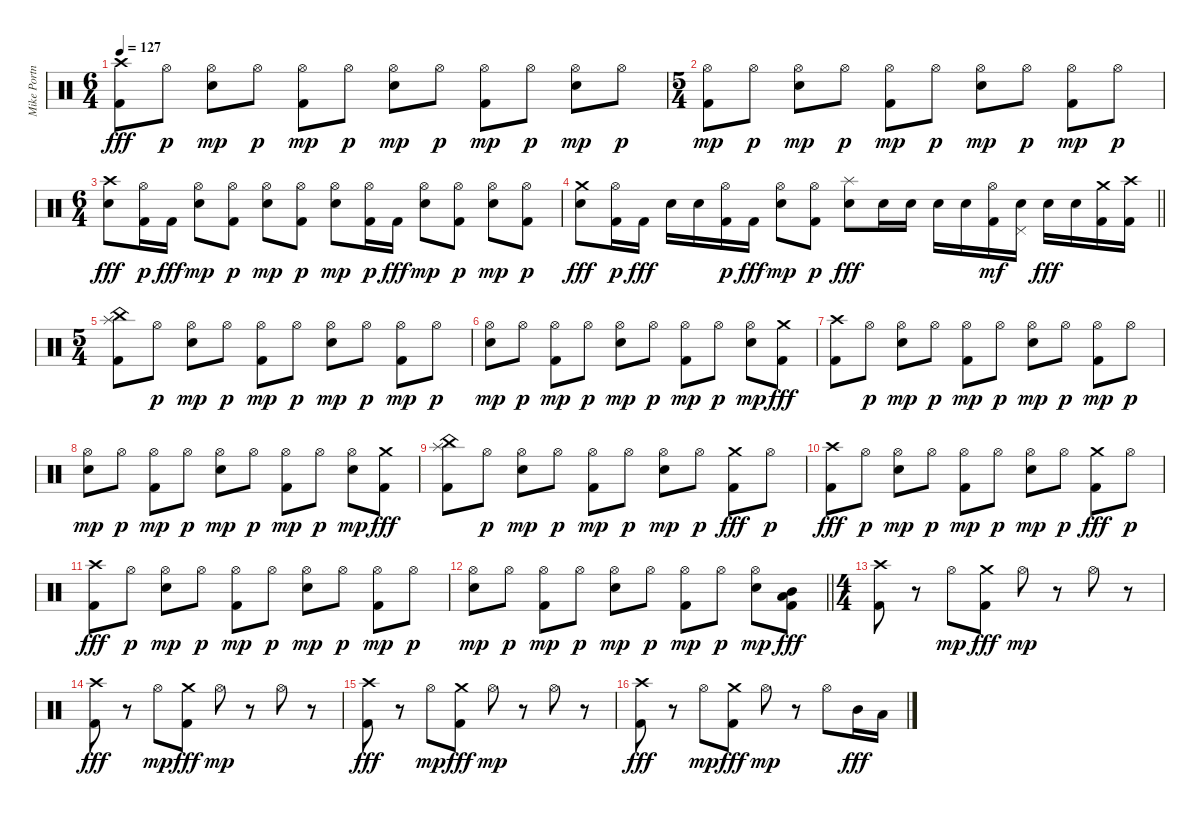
\track ("Mike Portnoy" "Mike Portn") {instrument percussion}
\staff {score}
\articulation defaults
\ts (6 4)
\tempo 127
\clef neutral
\ks c
("Kick (hit) 2" "Crash high (hit)").8{dy fff} "Hi-Hat (open)".8{dy p} ("Electric Snare (hit)" "Hi-Hat (open)").8{dy mp} "Hi-Hat (open)".8{dy p} ("Kick (hit) 2" "Hi-Hat (open)").8{dy mp} "Hi-Hat (open)".8{dy p} ("Electric Snare (hit)" "Hi-Hat (open)").8{dy mp} "Hi-Hat (open)".8{dy p} ("Kick (hit) 2" "Hi-Hat (open)").8{dy mp} "Hi-Hat (open)".8{dy p} ("Electric Snare (hit)" "Hi-Hat (open)").8{dy mp} "Hi-Hat (open)".8{dy p} |
\ts (5 4)
("Kick (hit) 2" "Hi-Hat (open)").8{dy mp} "Hi-Hat (open)".8{dy p} ("Electric Snare (hit)" "Hi-Hat (open)").8{dy mp} "Hi-Hat (open)".8{dy p} ("Kick (hit) 2" "Hi-Hat (open)").8{dy mp} "Hi-Hat (open)".8{dy p} ("Electric Snare (hit)" "Hi-Hat (open)").8{dy mp} "Hi-Hat (open)".8{dy p} ("Kick (hit) 2" "Hi-Hat (open)").8{dy mp} "Hi-Hat (open)".8{dy p} |
\ts (6 4)
("Electric Snare (hit)" "Crash high (hit)").8{dy fff} ("Kick (hit) 2" "Hi-Hat (open)").16{dy p} "Kick (hit) 2".16{dy fff} ("Electric Snare (hit)" "Hi-Hat (open)").8{dy mp} ("Kick (hit) 2" "Hi-Hat (open)").8{dy p} ("Electric Snare (hit)" "Hi-Hat (open)").8{dy mp} ("Kick (hit) 2" "Hi-Hat (open)").8{dy p} ("Electric Snare (hit)" "Hi-Hat (open)").8{dy mp} ("Kick (hit) 2" "Hi-Hat (open)").16{dy p} "Kick (hit) 2".16{dy fff} ("Electric Snare (hit)" "Hi-Hat (open)").8{dy mp} ("Kick (hit) 2" "Hi-Hat (open)").8{dy p} ("Electric Snare (hit)" "Hi-Hat (open)").8{dy mp} ("Kick (hit) 2" "Hi-Hat (open)").8{dy p} |
\barLineRight lightlight
("Electric Snare (hit)" "Crash medium (hit)").8{dy fff} ("Kick (hit) 2" "Hi-Hat (open)").16{dy p} "Kick (hit) 2".16{dy fff} "Electric Snare (hit)".16 "Electric Snare (hit)".16 ("Kick (hit) 2" "Hi-Hat (open)").16{dy p} "Kick (hit) 2".16{dy fff} ("Electric Snare (hit)" "Hi-Hat (open)").8{dy mp} ("Kick (hit) 2" "Hi-Hat (open)").8{dy p} ("Electric Snare (hit)" "Splash (hit)").8{dy fff} "Electric Snare (hit)".16 "Electric Snare (hit)".16 "Electric Snare (hit)".16 "Electric Snare (hit)".16 ("Kick (hit) 2" "Hi-Hat (open)").16{dy mf} ("Electric Snare (hit)" "Pedal Hi-Hat (hit)").16 "Electric Snare (hit)".16{dy fff} "Electric Snare (hit)".16 ("Kick (hit) 2" "Crash medium (hit)").16 ("Kick (hit) 2" "Crash high (hit)").16 |
\ts (5 4)
("Kick (hit) 2" "China (hit)" "Splash (hit)").8 "Hi-Hat (open)".8{dy p} ("Electric Snare (hit)" "Hi-Hat (open)").8{dy mp} "Hi-Hat (open)".8{dy p} ("Kick (hit) 2" "Hi-Hat (open)").8{dy mp} "Hi-Hat (open)".8{dy p} ("Electric Snare (hit)" "Hi-Hat (open)").8{dy mp} "Hi-Hat (open)".8{dy p} ("Kick (hit) 2" "Hi-Hat (open)").8{dy mp} "Hi-Hat (open)".8{dy p} |
("Electric Snare (hit)" "Hi-Hat (open)").8{dy mp} "Hi-Hat (open)".8{dy p} ("Kick (hit) 2" "Hi-Hat (open)").8{dy mp} "Hi-Hat (open)".8{dy p} ("Electric Snare (hit)" "Hi-Hat (open)").8{dy mp} "Hi-Hat (open)".8{dy p} ("Kick (hit) 2" "Hi-Hat (open)").8{dy mp} "Hi-Hat (open)".8{dy p} ("Electric Snare (hit)" "Hi-Hat (open)").8{dy mp} ("Kick (hit) 2" "Crash medium (hit)").8{dy fff} |
("Kick (hit) 2" "Crash high (hit)").8 "Hi-Hat (open)".8{dy p} ("Electric Snare (hit)" "Hi-Hat (open)").8{dy mp} "Hi-Hat (open)".8{dy p} ("Kick (hit) 2" "Hi-Hat (open)").8{dy mp} "Hi-Hat (open)".8{dy p} ("Electric Snare (hit)" "Hi-Hat (open)").8{dy mp} "Hi-Hat (open)".8{dy p} ("Kick (hit) 2" "Hi-Hat (open)").8{dy mp} "Hi-Hat (open)".8{dy p} |
("Electric Snare (hit)" "Hi-Hat (open)").8{dy mp} "Hi-Hat (open)".8{dy p} ("Kick (hit) 2" "Hi-Hat (open)").8{dy mp} "Hi-Hat (open)".8{dy p} ("Electric Snare (hit)" "Hi-Hat (open)").8{dy mp} "Hi-Hat (open)".8{dy p} ("Kick (hit) 2" "Hi-Hat (open)").8{dy mp} "Hi-Hat (open)".8{dy p} ("Electric Snare (hit)" "Hi-Hat (open)").8{dy mp} ("Kick (hit) 2" "Crash medium (hit)").8{dy fff} |
("Kick (hit) 2" "China (hit)" "Splash (hit)").8 "Hi-Hat (open)".8{dy p} ("Electric Snare (hit)" "Hi-Hat (open)").8{dy mp} "Hi-Hat (open)".8{dy p} ("Kick (hit) 2" "Hi-Hat (open)").8{dy mp} "Hi-Hat (open)".8{dy p} ("Electric Snare (hit)" "Hi-Hat (open)").8{dy mp} "Hi-Hat (open)".8{dy p} ("Kick (hit) 2" "Crash medium (hit)").8{dy fff} "Hi-Hat (open)".8{dy p} |
("Kick (hit) 2" "Crash high (hit)").8{dy fff} "Hi-Hat (open)".8{dy p} ("Electric Snare (hit)" "Hi-Hat (open)").8{dy mp} "Hi-Hat (open)".8{dy p} ("Kick (hit) 2" "Hi-Hat (open)").8{dy mp} "Hi-Hat (open)".8{dy p} ("Electric Snare (hit)" "Hi-Hat (open)").8{dy mp} "Hi-Hat (open)".8{dy p} ("Kick (hit) 2" "Crash medium (hit)").8{dy fff} "Hi-Hat (open)".8{dy p} |
("Kick (hit) 2" "Crash high (hit)").8{dy fff} "Hi-Hat (open)".8{dy p} ("Electric Snare (hit)" "Hi-Hat (open)").8{dy mp} "Hi-Hat (open)".8{dy p} ("Kick (hit) 2" "Hi-Hat (open)").8{dy mp} "Hi-Hat (open)".8{dy p} ("Electric Snare (hit)" "Hi-Hat (open)").8{dy mp} "Hi-Hat (open)".8{dy p} ("Kick (hit) 2" "Hi-Hat (open)").8{dy mp} "Hi-Hat (open)".8{dy p} |
\barLineRight lightlight
("Electric Snare (hit)" "Hi-Hat (open)").8{dy mp} "Hi-Hat (open)".8{dy p} ("Kick (hit) 2" "Hi-Hat (open)").8{dy mp} "Hi-Hat (open)".8{dy p} ("Electric Snare (hit)" "Hi-Hat (open)").8{dy mp} "Hi-Hat (open)".8{dy p} ("Kick (hit) 2" "Hi-Hat (open)").8{dy mp} "Hi-Hat (open)".8{dy p} ("Electric Snare (hit)" "Hi-Hat (open)").8{dy mp} ("Kick (hit) 2" "Mid Tom (hit)" "Low Tom (hit)").8{dy fff} |
\ts (4 4)
("Kick (hit) 2" "Crash high (hit)").8 r.8 "Hi-Hat (open)".8{dy mp} ("Kick (hit) 2" "Crash medium (hit)").8{dy fff} "Hi-Hat (open)".8{dy mp} r.8 "Hi-Hat (open)".8 r.8 |
("Kick (hit) 2" "Crash high (hit)").8{dy fff} r.8 "Hi-Hat (open)".8{dy mp} ("Kick (hit) 2" "Crash medium (hit)").8{dy fff} "Hi-Hat (open)".8{dy mp} r.8 "Hi-Hat (open)".8 r.8 |
("Kick (hit) 2" "Crash high (hit)").8{dy fff} r.8 "Hi-Hat (open)".8{dy mp} ("Kick (hit) 2" "Crash medium (hit)").8{dy fff} "Hi-Hat (open)".8{dy mp} r.8 "Hi-Hat (open)".8 r.8 |
("Kick (hit) 2" "Crash high (hit)").8{dy fff} r.8 "Hi-Hat (open)".8{dy mp} ("Kick (hit) 2" "Crash medium (hit)").8{dy fff} "Hi-Hat (open)".8{dy mp} r.8 "Hi-Hat (open)".8 "Mid Tom (hit)".16{dy fff} "Low Tom (hit)".16
